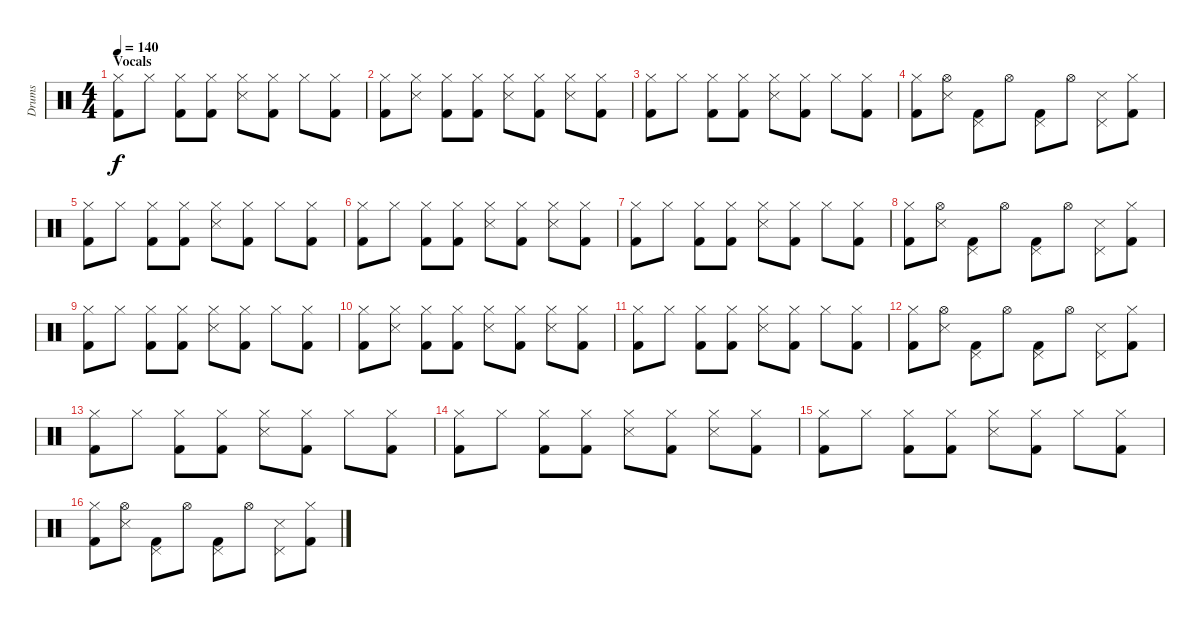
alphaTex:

\track ("Drums" "Drums") {instrument percussion}
\staff {score}
\articulation defaults
\ts (4 4)
\section ("" "Vocals")
\tempo 140
\clef neutral
\ks c
("Kick (hit) 2" "Hi-Hat (closed)").8{dy f} "Hi-Hat (closed)".8 ("Kick (hit) 2" "Hi-Hat (closed)").8 ("Kick (hit) 2" "Hi-Hat (closed)").8 ("Snare (side stick) 3" "Hi-Hat (closed)").8 ("Kick (hit) 2" "Hi-Hat (closed)").8 "Hi-Hat (closed)".8 ("Kick (hit) 2" "Hi-Hat (closed)").8 |
("Kick (hit) 2" "Hi-Hat (closed)").8 ("Snare (side stick) 3" "Hi-Hat (closed)").8 ("Kick (hit) 2" "Hi-Hat (closed)").8 ("Kick (hit) 2" "Hi-Hat (closed)").8 ("Snare (side stick) 3" "Hi-Hat (closed)").8 ("Kick (hit) 2" "Hi-Hat (closed)").8 ("Snare (side stick) 3" "Hi-Hat (closed)").8 ("Kick (hit) 2" "Hi-Hat (closed)").8 |
("Kick (hit) 2" "Hi-Hat (closed)").8 "Hi-Hat (closed)".8 ("Kick (hit) 2" "Hi-Hat (closed)").8 ("Kick (hit) 2" "Hi-Hat (closed)").8 ("Snare (side stick) 3" "Hi-Hat (closed)").8 ("Kick (hit) 2" "Hi-Hat (closed)").8 "Hi-Hat (closed)".8 ("Kick (hit) 2" "Hi-Hat (closed)").8 |
("Kick (hit) 2" "Hi-Hat (closed)").8 ("Snare (side stick) 3" "Hi-Hat (open)").8 ("Kick (hit) 2" "Pedal Hi-Hat (hit)").8 "Hi-Hat (open)".8 ("Kick (hit) 2" "Pedal Hi-Hat (hit)").8 "Hi-Hat (open)".8 ("Snare (side stick) 3" "Pedal Hi-Hat (hit)").8 ("Kick (hit) 2" "Hi-Hat (closed)").8 |
("Kick (hit) 2" "Hi-Hat (closed)").8 "Hi-Hat (closed)".8 ("Kick (hit) 2" "Hi-Hat (closed)").8 ("Kick (hit) 2" "Hi-Hat (closed)").8 ("Snare (side stick) 3" "Hi-Hat (closed)").8 ("Kick (hit) 2" "Hi-Hat (closed)").8 "Hi-Hat (closed)".8 ("Kick (hit) 2" "Hi-Hat (closed)").8 |
("Kick (hit) 2" "Hi-Hat (closed)").8 "Hi-Hat (closed)".8 ("Kick (hit) 2" "Hi-Hat (closed)").8 ("Kick (hit) 2" "Hi-Hat (closed)").8 ("Snare (side stick) 3" "Hi-Hat (closed)").8 ("Kick (hit) 2" "Hi-Hat (closed)").8 ("Snare (side stick) 3" "Hi-Hat (closed)").8 ("Kick (hit) 2" "Hi-Hat (closed)").8 |
("Kick (hit) 2" "Hi-Hat (closed)").8 "Hi-Hat (closed)".8 ("Kick (hit) 2" "Hi-Hat (closed)").8 ("Kick (hit) 2" "Hi-Hat (closed)").8 ("Snare (side stick) 3" "Hi-Hat (closed)").8 ("Kick (hit) 2" "Hi-Hat (closed)").8 "Hi-Hat (closed)".8 ("Kick (hit) 2" "Hi-Hat (closed)").8 |
("Kick (hit) 2" "Hi-Hat (closed)").8 ("Snare (side stick) 3" "Hi-Hat (open)").8 ("Kick (hit) 2" "Pedal Hi-Hat (hit)").8 "Hi-Hat (open)".8 ("Kick (hit) 2" "Pedal Hi-Hat (hit)").8 "Hi-Hat (open)".8 ("Snare (side stick) 3" "Pedal Hi-Hat (hit)").8 ("Kick (hit) 2" "Hi-Hat (closed)").8 |
("Kick (hit) 2" "Hi-Hat (closed)").8 "Hi-Hat (closed)".8 ("Kick (hit) 2" "Hi-Hat (closed)").8 ("Kick (hit) 2" "Hi-Hat (closed)").8 ("Snare (side stick) 3" "Hi-Hat (closed)").8 ("Kick (hit) 2" "Hi-Hat (closed)").8 "Hi-Hat (closed)".8 ("Kick (hit) 2" "Hi-Hat (closed)").8 |
("Kick (hit) 2" "Hi-Hat (closed)").8 ("Snare (side stick) 3" "Hi-Hat (closed)").8 ("Kick (hit) 2" "Hi-Hat (closed)").8 ("Kick (hit) 2" "Hi-Hat (closed)").8 ("Snare (side stick) 3" "Hi-Hat (closed)").8 ("Kick (hit) 2" "Hi-Hat (closed)").8 ("Snare (side stick) 3" "Hi-Hat (closed)").8 ("Kick (hit) 2" "Hi-Hat (closed)").8 |
("Kick (hit) 2" "Hi-Hat (closed)").8 "Hi-Hat (closed)".8 ("Kick (hit) 2" "Hi-Hat (closed)").8 ("Kick (hit) 2" "Hi-Hat (closed)").8 ("Snare (side stick) 3" "Hi-Hat (closed)").8 ("Kick (hit) 2" "Hi-Hat (closed)").8 "Hi-Hat (closed)".8 ("Kick (hit) 2" "Hi-Hat (closed)").8 |
("Kick (hit) 2" "Hi-Hat (closed)").8 ("Snare (side stick) 3" "Hi-Hat (open)").8 ("Kick (hit) 2" "Pedal Hi-Hat (hit)").8 "Hi-Hat (open)".8 ("Kick (hit) 2" "Pedal Hi-Hat (hit)").8 "Hi-Hat (open)".8 ("Snare (side stick) 3" "Pedal Hi-Hat (hit)").8 ("Kick (hit) 2" "Hi-Hat (closed)").8 |
("Kick (hit) 2" "Hi-Hat (closed)").8 "Hi-Hat (closed)".8 ("Kick (hit) 2" "Hi-Hat (closed)").8 ("Kick (hit) 2" "Hi-Hat (closed)").8 ("Snare (side stick) 3" "Hi-Hat (closed)").8 ("Kick (hit) 2" "Hi-Hat (closed)").8 "Hi-Hat (closed)".8 ("Kick (hit) 2" "Hi-Hat (closed)").8 |
("Kick (hit) 2" "Hi-Hat (closed)").8 "Hi-Hat (closed)".8 ("Kick (hit) 2" "Hi-Hat (closed)").8 ("Kick (hit) 2" "Hi-Hat (closed)").8 ("Snare (side stick) 3" "Hi-Hat (closed)").8 ("Kick (hit) 2" "Hi-Hat (closed)").8 ("Snare (side stick) 3" "Hi-Hat (closed)").8 ("Kick (hit) 2" "Hi-Hat (closed)").8 |
("Kick (hit) 2" "Hi-Hat (closed)").8 "Hi-Hat (closed)".8 ("Kick (hit) 2" "Hi-Hat (closed)").8 ("Kick (hit) 2" "Hi-Hat (closed)").8 ("Snare (side stick) 3" "Hi-Hat (closed)").8 ("Kick (hit) 2" "Hi-Hat (closed)").8 "Hi-Hat (closed)".8 ("Kick (hit) 2" "Hi-Hat (closed)").8 |
("Kick (hit) 2" "Hi-Hat (closed)").8 ("Snare (side stick) 3" "Hi-Hat (open)").8 ("Kick (hit) 2" "Pedal Hi-Hat (hit)").8 "Hi-Hat (open)".8 ("Kick (hit) 2" "Pedal Hi-Hat (hit)").8 "Hi-Hat (open)".8 ("Snare (side stick) 3" "Pedal Hi-Hat (hit)").8 ("Kick (hit) 2" "Hi-Hat (closed)").8
